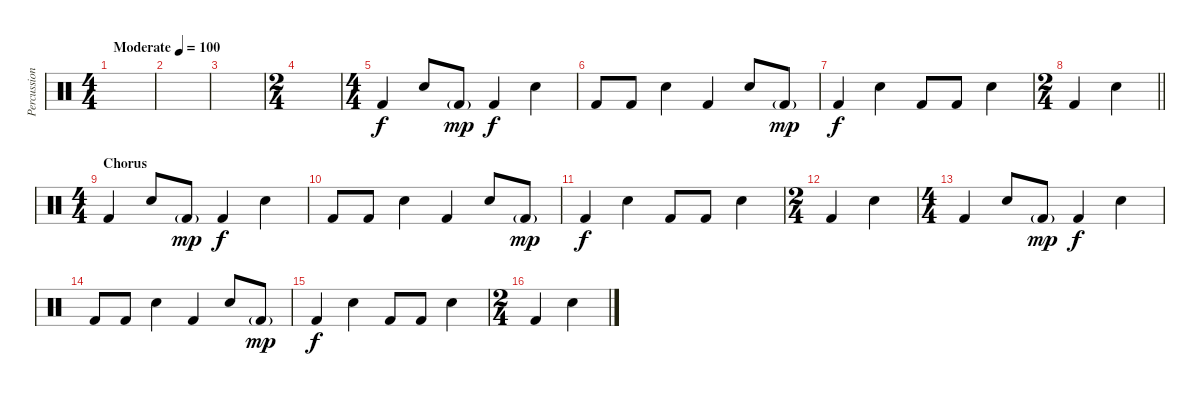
\track ("Percussion" "Percussion") {instrument percussion}
\staff {score}
\articulation defaults
\ts (4 4)
\tempo (100 "Moderate")
\clef neutral
\ks c
|
|
|
\ts (2 4)
|
\ts (4 4)
"Kick (hit) 2".4 "Snare (hit) 2".8 "Kick (hit) 2"{g}.8{dy mp} "Kick (hit) 2".4{dy f} "Snare (hit) 2".4 |
"Kick (hit) 2".8 "Kick (hit) 2".8 "Snare (hit) 2".4 "Kick (hit) 2".4 "Snare (hit) 2".8 "Kick (hit) 2"{g}.8{dy mp} |
"Kick (hit) 2".4{dy f} "Snare (hit) 2".4 "Kick (hit) 2".8 "Kick (hit) 2".8 "Snare (hit) 2".4 |
\ts (2 4)
\barLineRight lightlight "Kick (hit) 2".4 "Snare (hit) 2".4
|
\ts (4 4)
\section ("" "Chorus")
"Kick (hit) 2".4 "Snare (hit) 2".8 "Kick (hit) 2"{g}.8{dy mp} "Kick (hit) 2".4{dy f} "Snare (hit) 2".4 |
"Kick (hit) 2".8 "Kick (hit) 2".8 "Snare (hit) 2".4 "Kick (hit) 2".4 "Snare (hit) 2".8 "Kick (hit) 2"{g}.8{dy mp} |
"Kick (hit) 2".4{dy f} "Snare (hit) 2".4 "Kick (hit) 2".8 "Kick (hit) 2".8 "Snare (hit) 2".4 |
\ts (2 4)
"Kick (hit) 2".4 "Snare (hit) 2".4 |
\ts (4 4)
"Kick (hit) 2".4 "Snare (hit) 2".8 "Kick (hit) 2"{g}.8{dy mp} "Kick (hit) 2".4{dy f} "Snare (hit) 2".4 |
"Kick (hit) 2".8 "Kick (hit) 2".8 "Snare (hit) 2".4 "Kick (hit) 2".4 "Snare (hit) 2".8 "Kick (hit) 2"{g}.8{dy mp} |
"Kick (hit) 2".4{dy f} "Snare (hit) 2".4 "Kick (hit) 2".8 "Kick (hit) 2".8 "Snare (hit) 2".4 |
\ts (2 4)
"Kick (hit) 2".4 "Snare (hit) 2".4
